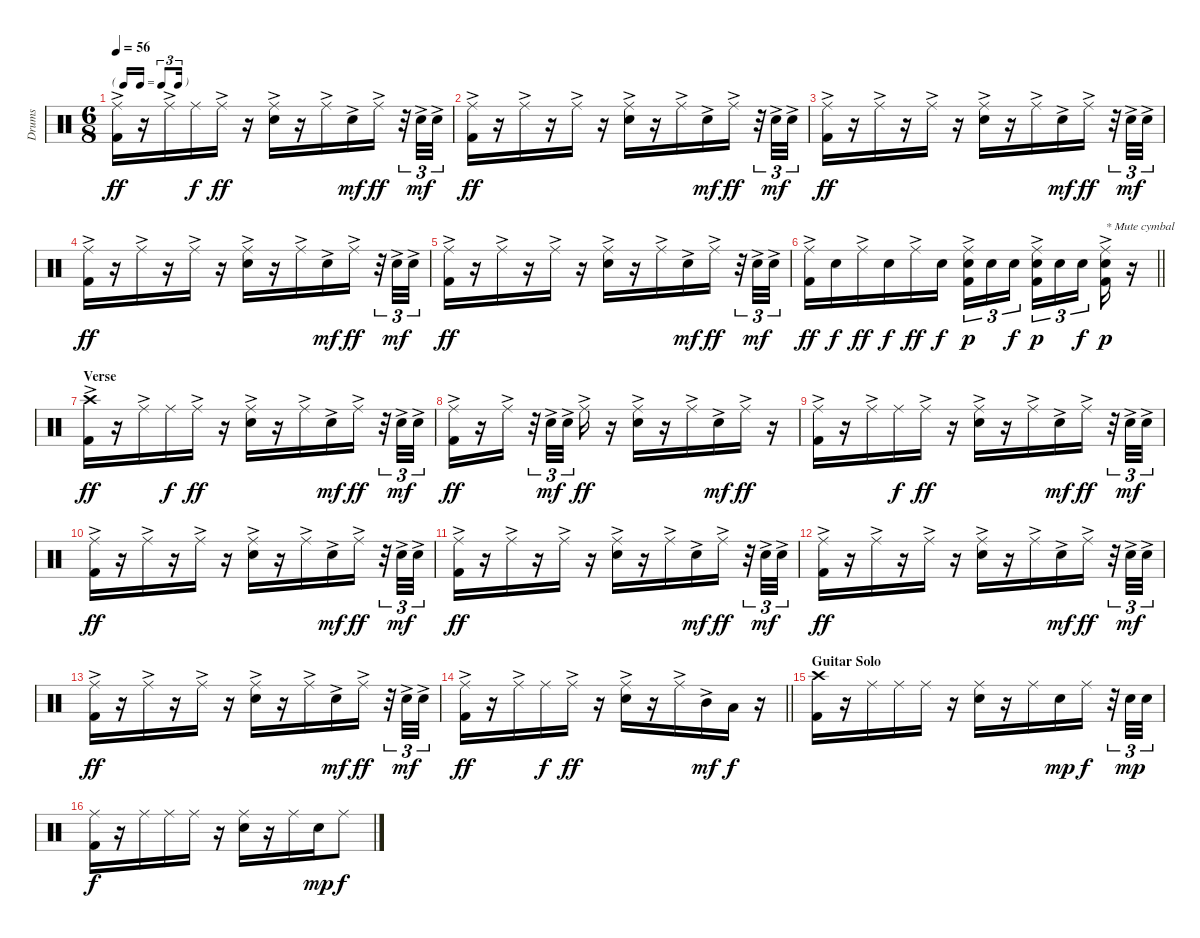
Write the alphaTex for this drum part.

\track ("Drums" "Drums") {instrument percussion}
\staff {score}
\articulation defaults
\ts (6 8)
\tf triplet16th
\tempo 56
\clef neutral
\ks c
("Ride (middle)"{ac} "Kick (hit) 2"{ac}).16{dy ff} r.16 "Ride (middle)"{ac}.16 "Ride (middle)".16{dy f} "Ride (middle)"{ac}.16{dy ff} r.16 ("Ride (middle)"{ac} "Electric Snare (hit)"{ac}).16 r.16 "Ride (middle)"{ac}.16 "Electric Snare (hit)"{ac}.16{dy mf} "Ride (middle)"{ac}.16{dy ff} r.32{tu (3 2)} "Electric Snare (hit)"{ac}.32{tu (3 2) dy mf} "Electric Snare (hit)"{ac}.32{tu (3 2)} |
("Ride (middle)"{ac} "Kick (hit) 2"{ac}).16{dy ff} r.16 "Ride (middle)"{ac}.16 r.16 "Ride (middle)"{ac}.16 r.16 ("Ride (middle)"{ac} "Electric Snare (hit)"{ac}).16 r.16 "Ride (middle)"{ac}.16 "Electric Snare (hit)"{ac}.16{dy mf} "Ride (middle)"{ac}.16{dy ff} r.32{tu (3 2)} "Electric Snare (hit)"{ac}.32{tu (3 2) dy mf} "Electric Snare (hit)"{ac}.32{tu (3 2)} |
("Ride (middle)"{ac} "Kick (hit) 2"{ac}).16{dy ff} r.16 "Ride (middle)"{ac}.16 r.16 "Ride (middle)"{ac}.16 r.16 ("Ride (middle)"{ac} "Electric Snare (hit)"{ac}).16 r.16 "Ride (middle)"{ac}.16 "Electric Snare (hit)"{ac}.16{dy mf} "Ride (middle)"{ac}.16{dy ff} r.32{tu (3 2)} "Electric Snare (hit)"{ac}.32{tu (3 2) dy mf} "Electric Snare (hit)"{ac}.32{tu (3 2)} |
("Ride (middle)"{ac} "Kick (hit) 2"{ac}).16{dy ff} r.16 "Ride (middle)"{ac}.16 r.16 "Ride (middle)"{ac}.16 r.16 ("Ride (middle)"{ac} "Electric Snare (hit)"{ac}).16 r.16 "Ride (middle)"{ac}.16 "Electric Snare (hit)"{ac}.16{dy mf} "Ride (middle)"{ac}.16{dy ff} r.32{tu (3 2)} "Electric Snare (hit)"{ac}.32{tu (3 2) dy mf} "Electric Snare (hit)"{ac}.32{tu (3 2)} |
("Ride (middle)"{ac} "Kick (hit) 2"{ac}).16{dy ff} r.16 "Ride (middle)"{ac}.16 r.16 "Ride (middle)"{ac}.16 r.16 ("Ride (middle)"{ac} "Electric Snare (hit)"{ac}).16 r.16 "Ride (middle)"{ac}.16 "Electric Snare (hit)"{ac}.16{dy mf} "Ride (middle)"{ac}.16{dy ff} r.32{tu (3 2)} "Electric Snare (hit)"{ac}.32{tu (3 2) dy mf} "Electric Snare (hit)"{ac}.32{tu (3 2)} |
\barLineRight lightlight
("Ride (middle)"{ac} "Kick (hit) 2"{ac}).16{dy ff} "Electric Snare (hit)".16{dy f} "Ride (middle)"{ac}.16{dy ff} "Electric Snare (hit)".16{dy f} "Ride (middle)"{ac}.16{dy ff} "Electric Snare (hit)".16{dy f} ("Ride (middle)" "Electric Snare (hit)"{ac} "Kick (hit) 2").16{tu (3 2) dy p} "Electric Snare (hit)".16{tu (3 2)} "Electric Snare (hit)".16{tu (3 2) dy f beam splitsecondary} ("Ride (middle)" "Electric Snare (hit)"{ac} "Kick (hit) 2").16{tu (3 2) dy p} "Electric Snare (hit)".16{tu (3 2)} "Electric Snare (hit)".16{tu (3 2) dy f beam splitsecondary} ("Ride (middle)" "Electric Snare (hit)"{ac} "Kick (hit) 2").16{txt "* Mute cymbal" dy p} r.16 |
\section ("" "Verse")
("Crash high (hit)"{ac} "Kick (hit) 2"{ac}).16{dy ff} r.16 "Ride (middle)"{ac}.16 "Ride (middle)".16{dy f} "Ride (middle)"{ac}.16{dy ff} r.16 ("Ride (middle)"{ac} "Electric Snare (hit)"{ac}).16 r.16 "Ride (middle)"{ac}.16 "Electric Snare (hit)"{ac}.16{dy mf} "Ride (middle)"{ac}.16{dy ff} r.32{tu (3 2)} "Electric Snare (hit)"{ac}.32{tu (3 2) dy mf} "Electric Snare (hit)"{ac}.32{tu (3 2)} |
("Ride (middle)"{ac} "Kick (hit) 2"{ac}).16{dy ff} r.16 "Ride (middle)"{ac}.16 r.32{tu (3 2)} "Electric Snare (hit)"{ac}.32{tu (3 2) dy mf} "Electric Snare (hit)"{ac}.32{tu (3 2) beam splitsecondary} "Ride (middle)"{ac}.16{dy ff} r.16 ("Ride (middle)"{ac} "Electric Snare (hit)"{ac}).16 r.16 "Ride (middle)"{ac}.16 "Electric Snare (hit)"{ac}.16{dy mf} "Ride (middle)"{ac}.16{dy ff} r.16 |
("Ride (middle)"{ac} "Kick (hit) 2"{ac}).16 r.16 "Ride (middle)"{ac}.16 "Ride (middle)".16{dy f} "Ride (middle)"{ac}.16{dy ff} r.16 ("Ride (middle)"{ac} "Electric Snare (hit)"{ac}).16 r.16 "Ride (middle)"{ac}.16 "Electric Snare (hit)"{ac}.16{dy mf} "Ride (middle)"{ac}.16{dy ff} r.32{tu (3 2)} "Electric Snare (hit)"{ac}.32{tu (3 2) dy mf} "Electric Snare (hit)"{ac}.32{tu (3 2)} |
("Ride (middle)"{ac} "Kick (hit) 2"{ac}).16{dy ff} r.16 "Ride (middle)"{ac}.16 r.16 "Ride (middle)"{ac}.16 r.16 ("Ride (middle)"{ac} "Electric Snare (hit)"{ac}).16 r.16 "Ride (middle)"{ac}.16 "Electric Snare (hit)"{ac}.16{dy mf} "Ride (middle)"{ac}.16{dy ff} r.32{tu (3 2)} "Electric Snare (hit)"{ac}.32{tu (3 2) dy mf} "Electric Snare (hit)"{ac}.32{tu (3 2)} |
("Ride (middle)"{ac} "Kick (hit) 2"{ac}).16{dy ff} r.16 "Ride (middle)"{ac}.16 r.16 "Ride (middle)"{ac}.16 r.16 ("Ride (middle)"{ac} "Electric Snare (hit)"{ac}).16 r.16 "Ride (middle)"{ac}.16 "Electric Snare (hit)"{ac}.16{dy mf} "Ride (middle)"{ac}.16{dy ff} r.32{tu (3 2)} "Electric Snare (hit)"{ac}.32{tu (3 2) dy mf} "Electric Snare (hit)"{ac}.32{tu (3 2)} |
("Ride (middle)"{ac} "Kick (hit) 2"{ac}).16{dy ff} r.16 "Ride (middle)"{ac}.16 r.16 "Ride (middle)"{ac}.16 r.16 ("Ride (middle)"{ac} "Electric Snare (hit)"{ac}).16 r.16 "Ride (middle)"{ac}.16 "Electric Snare (hit)"{ac}.16{dy mf} "Ride (middle)"{ac}.16{dy ff} r.32{tu (3 2)} "Electric Snare (hit)"{ac}.32{tu (3 2) dy mf} "Electric Snare (hit)"{ac}.32{tu (3 2)} |
("Ride (middle)"{ac} "Kick (hit) 2"{ac}).16{dy ff} r.16 "Ride (middle)"{ac}.16 r.16 "Ride (middle)"{ac}.16 r.16 ("Ride (middle)"{ac} "Electric Snare (hit)"{ac}).16 r.16 "Ride (middle)"{ac}.16 "Electric Snare (hit)"{ac}.16{dy mf} "Ride (middle)"{ac}.16{dy ff} r.32{tu (3 2)} "Electric Snare (hit)"{ac}.32{tu (3 2) dy mf} "Electric Snare (hit)"{ac}.32{tu (3 2)} |
\barLineRight lightlight
("Ride (middle)"{ac} "Kick (hit) 2"{ac}).16{dy ff} r.16 "Ride (middle)"{ac}.16 "Ride (middle)".16{dy f} "Ride (middle)"{ac}.16{dy ff} r.16 ("Ride (middle)"{ac} "Electric Snare (hit)"{ac}).16 r.16 "Ride (middle)"{ac}.16 "Mid Tom (hit)"{ac}.16{dy mf} "Low Tom (hit)".16{dy f} r.16 |
\section ("" "Guitar Solo")
("Crash high (hit)" "Kick (hit) 2").16 r.16 "Ride (middle)".16 "Ride (middle)".16 "Ride (middle)".16 r.16 ("Ride (middle)" "Electric Snare (hit)").16 r.16 "Ride (middle)".16 "Electric Snare (hit)".16{dy mp} "Ride (middle)".16{dy f} r.32{tu (3 2)} "Electric Snare (hit)".32{tu (3 2) dy mp} "Electric Snare (hit)".32{tu (3 2)} |
("Ride (middle)" "Kick (hit) 2").16{dy f} r.16 "Ride (middle)".16 "Ride (middle)".16 "Ride (middle)".16 r.16 ("Ride (middle)" "Electric Snare (hit)").16 r.16 "Ride (middle)".16 "Electric Snare (hit)".16{dy mp} "Ride (middle)".8{dy f}
